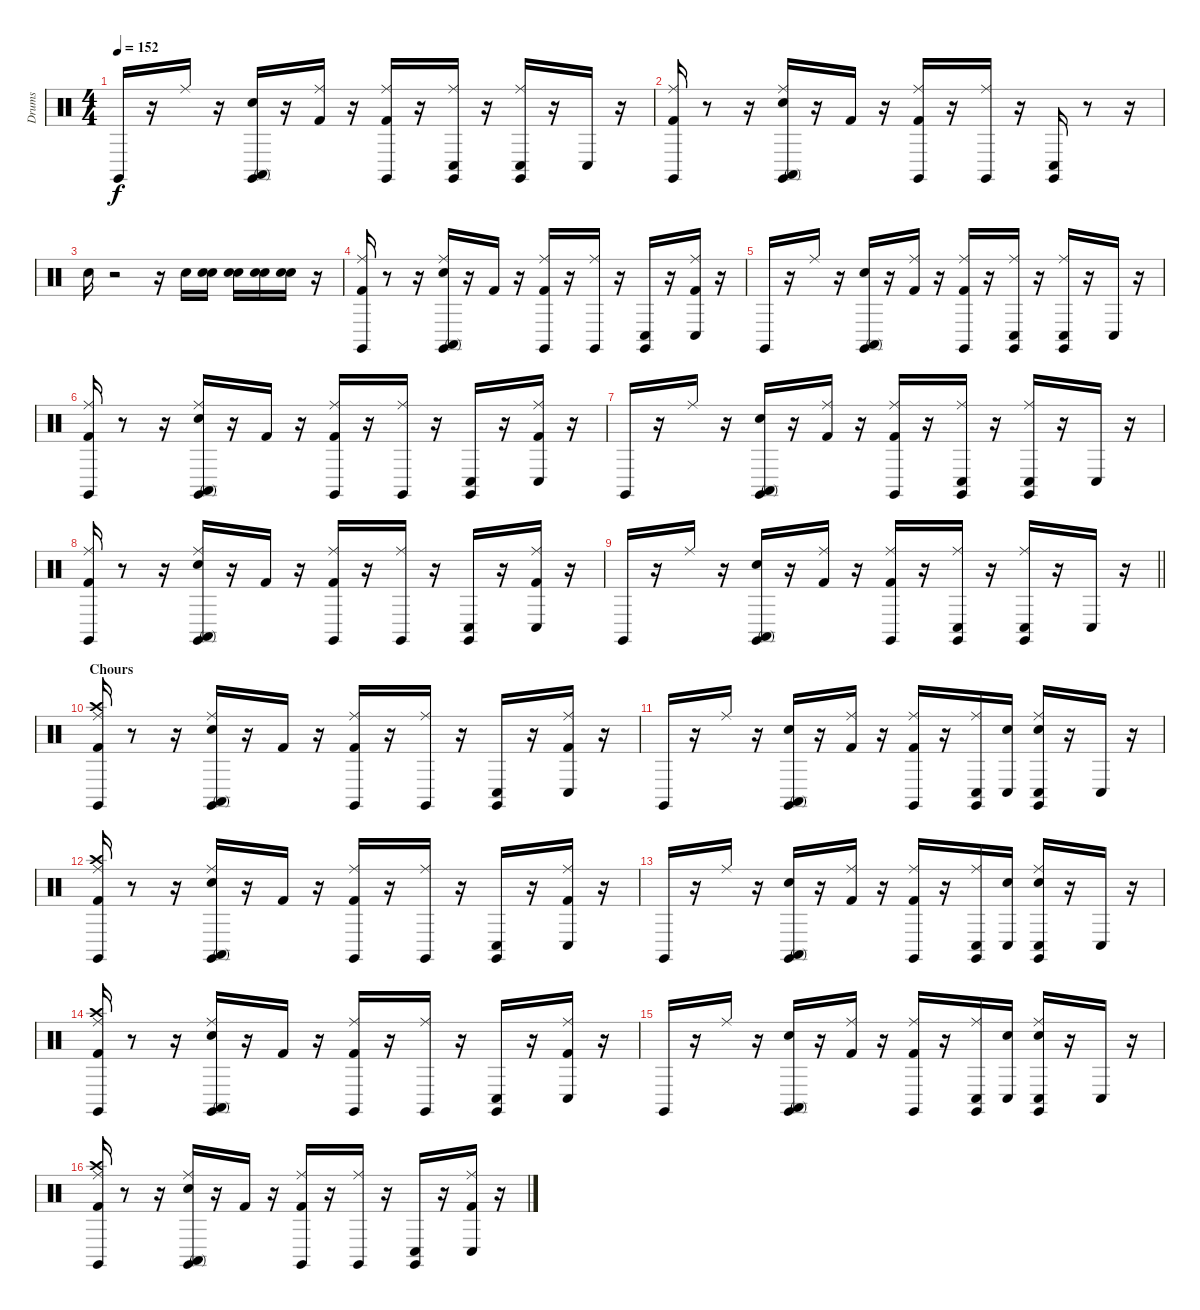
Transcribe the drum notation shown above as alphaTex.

\track ("Drums" "Drums") {instrument percussion}
\staff {score}
\articulation defaults
\ts (4 4)
\tempo 152
\clef neutral
\ks c "Claves (hit)".16{dy f}
r.16 "Ride (middle)".16 r.16 ("Snare (hit) 2" "Conga high (mute)" "Claves (hit)").16 r.16 ("Kick (hit) 2" "Ride (middle)").16 r.16 ("Kick (hit) 2" "Ride (middle)" "Claves (hit)").16 r.16 ("Ride (middle)" "Conga low (hit)" "Claves (hit)").16 r.16 ("Ride (middle)" "Conga low (hit)" "Claves (hit)").16 r.16 "Conga low (hit)".16 r.16 |
("Kick (hit) 2" "Ride (middle)" "Claves (hit)").16 r.8 r.16 ("Snare (hit) 2" "Ride (middle)" "Conga high (mute)" "Claves (hit)").16 r.16 "Kick (hit) 2".16 r.16 ("Kick (hit) 2" "Ride (middle)" "Claves (hit)").16 r.16 ("Ride (middle)" "Claves (hit)").16 r.16 ("Conga low (hit)" "Claves (hit)").16 r.8 r.16 |
"Snare (hit) 2".16 r.2 r.16 "Snare (hit) 2".16 ("Snare (hit)" "Snare (hit) 2").16 ("Snare (hit)" "Snare (hit) 2").16 ("Snare (hit)" "Snare (hit) 2").16 ("Snare (hit)" "Snare (hit) 2").16 r.16 |
("Kick (hit) 2" "Ride (middle)" "Claves (hit)").16 r.8 r.16 ("Snare (hit) 2" "Ride (middle)" "Conga high (mute)" "Claves (hit)").16 r.16 "Kick (hit) 2".16 r.16 ("Kick (hit) 2" "Ride (middle)" "Claves (hit)").16 r.16 ("Ride (middle)" "Claves (hit)").16 r.16 ("Conga low (hit)" "Claves (hit)").16 r.16 ("Kick (hit) 2" "Ride (middle)" "Conga low (hit)").16 r.16 |
"Claves (hit)".16 r.16 "Ride (middle)".16 r.16 ("Snare (hit) 2" "Conga high (mute)" "Claves (hit)").16 r.16 ("Kick (hit) 2" "Ride (middle)").16 r.16 ("Kick (hit) 2" "Ride (middle)" "Claves (hit)").16 r.16 ("Ride (middle)" "Conga low (hit)" "Claves (hit)").16 r.16 ("Ride (middle)" "Conga low (hit)" "Claves (hit)").16 r.16 "Conga low (hit)".16 r.16 |
("Kick (hit) 2" "Ride (middle)" "Claves (hit)").16 r.8 r.16 ("Snare (hit) 2" "Ride (middle)" "Conga high (mute)" "Claves (hit)").16 r.16 "Kick (hit) 2".16 r.16 ("Kick (hit) 2" "Ride (middle)" "Claves (hit)").16 r.16 ("Ride (middle)" "Claves (hit)").16 r.16 ("Conga low (hit)" "Claves (hit)").16 r.16 ("Kick (hit) 2" "Ride (middle)" "Conga low (hit)").16 r.16 |
"Claves (hit)".16 r.16 "Ride (middle)".16 r.16 ("Snare (hit) 2" "Conga high (mute)" "Claves (hit)").16 r.16 ("Kick (hit) 2" "Ride (middle)").16 r.16 ("Kick (hit) 2" "Ride (middle)" "Claves (hit)").16 r.16 ("Ride (middle)" "Conga low (hit)" "Claves (hit)").16 r.16 ("Ride (middle)" "Conga low (hit)" "Claves (hit)").16 r.16 "Conga low (hit)".16 r.16 |
("Kick (hit) 2" "Ride (middle)" "Claves (hit)").16 r.8 r.16 ("Snare (hit) 2" "Ride (middle)" "Conga high (mute)" "Claves (hit)").16 r.16 "Kick (hit) 2".16 r.16 ("Kick (hit) 2" "Ride (middle)" "Claves (hit)").16 r.16 ("Ride (middle)" "Claves (hit)").16 r.16 ("Conga low (hit)" "Claves (hit)").16 r.16 ("Kick (hit) 2" "Ride (middle)" "Conga low (hit)").16 r.16 |
\barLineRight lightlight "Claves (hit)".16
r.16 "Ride (middle)".16 r.16 ("Snare (hit) 2" "Conga high (mute)" "Claves (hit)").16 r.16 ("Kick (hit) 2" "Ride (middle)").16 r.16 ("Kick (hit) 2" "Ride (middle)" "Claves (hit)").16 r.16 ("Ride (middle)" "Conga low (hit)" "Claves (hit)").16 r.16 ("Ride (middle)" "Conga low (hit)" "Claves (hit)").16 r.16 "Conga low (hit)".16 r.16 |
\section ("" "Chours")
("Kick (hit) 2" "Crash high (hit)" "Ride (middle)" "Claves (hit)").16 r.8 r.16 ("Snare (hit) 2" "Ride (middle)" "Conga high (mute)" "Claves (hit)").16 r.16 "Kick (hit) 2".16 r.16 ("Kick (hit) 2" "Ride (middle)" "Claves (hit)").16 r.16 ("Ride (middle)" "Claves (hit)").16 r.16 ("Conga low (hit)" "Claves (hit)").16 r.16 ("Kick (hit) 2" "Ride (middle)" "Conga low (hit)").16 r.16 |
"Claves (hit)".16 r.16 "Ride (middle)".16 r.16 ("Snare (hit) 2" "Conga high (mute)" "Claves (hit)").16 r.16 ("Kick (hit) 2" "Ride (middle)").16 r.16 ("Kick (hit) 2" "Ride (middle)" "Claves (hit)").16 r.16 ("Ride (middle)" "Conga low (hit)" "Claves (hit)").16 ("Snare (hit)" "Conga low (hit)").16 ("Snare (hit)" "Ride (middle)" "Conga low (hit)" "Claves (hit)").16 r.16 "Conga low (hit)".16 r.16 |
("Kick (hit) 2" "Crash high (hit)" "Ride (middle)" "Claves (hit)").16 r.8 r.16 ("Snare (hit) 2" "Ride (middle)" "Conga high (mute)" "Claves (hit)").16 r.16 "Kick (hit) 2".16 r.16 ("Kick (hit) 2" "Ride (middle)" "Claves (hit)").16 r.16 ("Ride (middle)" "Claves (hit)").16 r.16 ("Conga low (hit)" "Claves (hit)").16 r.16 ("Kick (hit) 2" "Ride (middle)" "Conga low (hit)").16 r.16 |
"Claves (hit)".16 r.16 "Ride (middle)".16 r.16 ("Snare (hit) 2" "Conga high (mute)" "Claves (hit)").16 r.16 ("Kick (hit) 2" "Ride (middle)").16 r.16 ("Kick (hit) 2" "Ride (middle)" "Claves (hit)").16 r.16 ("Ride (middle)" "Conga low (hit)" "Claves (hit)").16 ("Snare (hit)" "Conga low (hit)").16 ("Snare (hit)" "Ride (middle)" "Conga low (hit)" "Claves (hit)").16 r.16 "Conga low (hit)".16 r.16 |
("Kick (hit) 2" "Crash high (hit)" "Ride (middle)" "Claves (hit)").16 r.8 r.16 ("Snare (hit) 2" "Ride (middle)" "Conga high (mute)" "Claves (hit)").16 r.16 "Kick (hit) 2".16 r.16 ("Kick (hit) 2" "Ride (middle)" "Claves (hit)").16 r.16 ("Ride (middle)" "Claves (hit)").16 r.16 ("Conga low (hit)" "Claves (hit)").16 r.16 ("Kick (hit) 2" "Ride (middle)" "Conga low (hit)").16 r.16 |
"Claves (hit)".16 r.16 "Ride (middle)".16 r.16 ("Snare (hit) 2" "Conga high (mute)" "Claves (hit)").16 r.16 ("Kick (hit) 2" "Ride (middle)").16 r.16 ("Kick (hit) 2" "Ride (middle)" "Claves (hit)").16 r.16 ("Ride (middle)" "Conga low (hit)" "Claves (hit)").16 ("Snare (hit)" "Conga low (hit)").16 ("Snare (hit)" "Ride (middle)" "Conga low (hit)" "Claves (hit)").16 r.16 "Conga low (hit)".16 r.16 |
("Kick (hit) 2" "Crash high (hit)" "Ride (middle)" "Claves (hit)").16 r.8 r.16 ("Snare (hit) 2" "Ride (middle)" "Conga high (mute)" "Claves (hit)").16 r.16 "Kick (hit) 2".16 r.16 ("Kick (hit) 2" "Ride (middle)" "Claves (hit)").16 r.16 ("Ride (middle)" "Claves (hit)").16 r.16 ("Conga low (hit)" "Claves (hit)").16 r.16 ("Kick (hit) 2" "Ride (middle)" "Conga low (hit)").16 r.16
